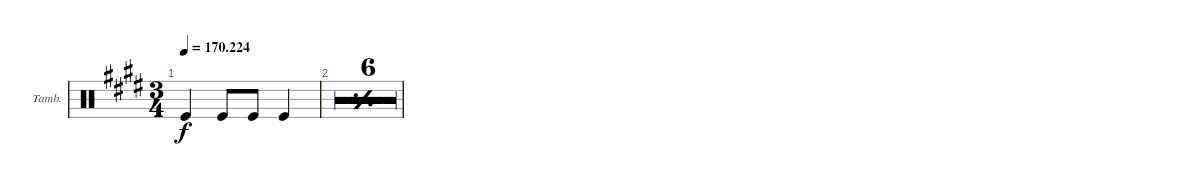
\defaultSystemsLayout 4
\bracketExtendMode groupsimilarinstruments
\firstSystemTrackNameOrientation horizontal
\otherSystemsTrackNameOrientation horizontal
\track ("Tambourine" "Tamb.") {multiBarRest instrument percussion}
\staff {score}
\articulation defaults
\ts (3 4)
\tempo
170.224
\accidentals auto
\clef neutral
\ottava regular
\simile none
\ks e "Kick (hit)".4{dy f} "Kick (hit)".8 "Kick (hit)".8 "Kick (hit)".4
|
\simile simple
|
|
|
|
|
\simile none
r.2{d}
